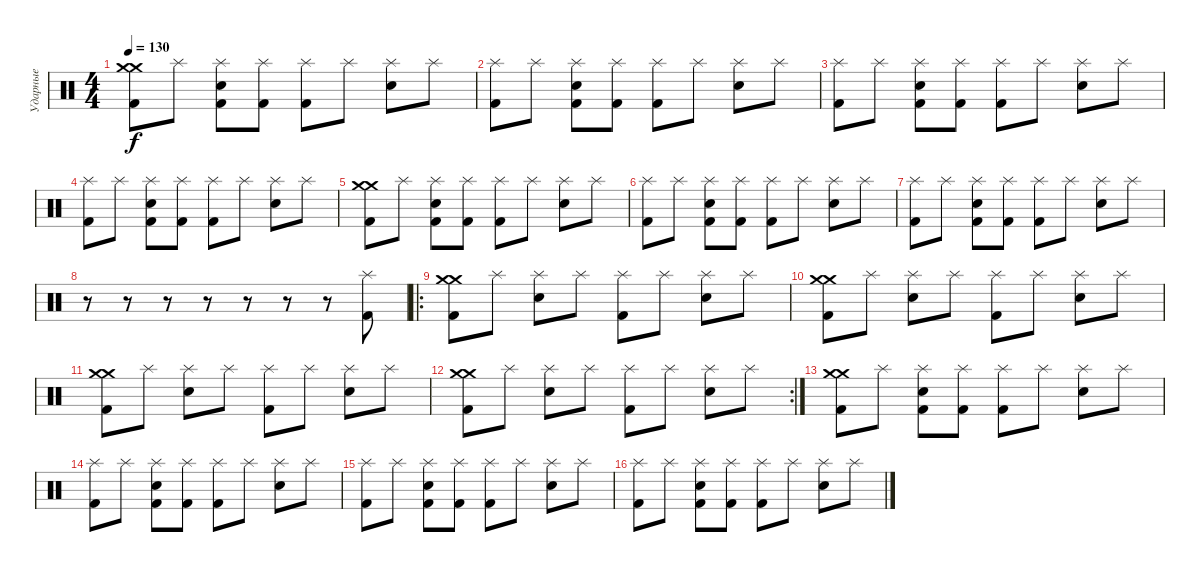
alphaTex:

\track ("Ударные" "Ударные") {instrument percussion}
\staff {score}
\articulation defaults
\ts (4 4)
\tempo 130
\clef neutral
\ks c
("Crash medium (hit)" "Crash medium (hit)" "Kick (hit) 2").8{dy f} "Splash (hit)".8 ("Splash (hit)" "Electric Snare (hit)" "Kick (hit) 2").8 ("Splash (hit)" "Kick (hit) 2").8 ("Splash (hit)" "Kick (hit) 2").8 "Splash (hit)".8 ("Splash (hit)" "Electric Snare (hit)").8 "Splash (hit)".8 |
("Splash (hit)" "Kick (hit) 2").8 "Splash (hit)".8 ("Splash (hit)" "Electric Snare (hit)" "Kick (hit) 2").8 ("Splash (hit)" "Kick (hit) 2").8 ("Splash (hit)" "Kick (hit) 2").8 "Splash (hit)".8 ("Splash (hit)" "Electric Snare (hit)").8 "Splash (hit)".8 |
("Splash (hit)" "Kick (hit) 2").8 "Splash (hit)".8 ("Splash (hit)" "Electric Snare (hit)" "Kick (hit) 2").8 ("Splash (hit)" "Kick (hit) 2").8 ("Splash (hit)" "Kick (hit) 2").8 "Splash (hit)".8 ("Splash (hit)" "Electric Snare (hit)").8 "Splash (hit)".8 |
("Splash (hit)" "Kick (hit) 2").8 "Splash (hit)".8 ("Splash (hit)" "Electric Snare (hit)" "Kick (hit) 2").8 ("Splash (hit)" "Kick (hit) 2").8 ("Splash (hit)" "Kick (hit) 2").8 "Splash (hit)".8 ("Splash (hit)" "Electric Snare (hit)").8 "Splash (hit)".8 |
("Crash medium (hit)" "Crash medium (hit)" "Kick (hit) 2").8 "Splash (hit)".8 ("Splash (hit)" "Electric Snare (hit)" "Kick (hit) 2").8 ("Splash (hit)" "Kick (hit) 2").8 ("Splash (hit)" "Kick (hit) 2").8 "Splash (hit)".8 ("Splash (hit)" "Electric Snare (hit)").8 "Splash (hit)".8 |
("Splash (hit)" "Kick (hit) 2").8 "Splash (hit)".8 ("Splash (hit)" "Electric Snare (hit)" "Kick (hit) 2").8 ("Splash (hit)" "Kick (hit) 2").8 ("Splash (hit)" "Kick (hit) 2").8 "Splash (hit)".8 ("Splash (hit)" "Electric Snare (hit)").8 "Splash (hit)".8 |
("Splash (hit)" "Kick (hit) 2").8 "Splash (hit)".8 ("Splash (hit)" "Electric Snare (hit)" "Kick (hit) 2").8 ("Splash (hit)" "Kick (hit) 2").8 ("Splash (hit)" "Kick (hit) 2").8 "Splash (hit)".8 ("Splash (hit)" "Electric Snare (hit)").8 "Splash (hit)".8 |
r.8 r.8 r.8 r.8 r.8 r.8 r.8 ("Splash (hit)" "Kick (hit) 2").8 |
\ro
("Crash medium (hit)" "Crash medium (hit)" "Kick (hit) 2").8 "Splash (hit)".8 ("Splash (hit)" "Electric Snare (hit)").8 "Splash (hit)".8 ("Splash (hit)" "Kick (hit) 2").8 "Splash (hit)".8 ("Splash (hit)" "Electric Snare (hit)").8 "Splash (hit)".8 |
("Crash medium (hit)" "Crash medium (hit)" "Kick (hit) 2").8 "Splash (hit)".8 ("Splash (hit)" "Electric Snare (hit)").8 "Splash (hit)".8 ("Splash (hit)" "Kick (hit) 2").8 "Splash (hit)".8 ("Splash (hit)" "Electric Snare (hit)").8 "Splash (hit)".8 |
("Crash medium (hit)" "Crash medium (hit)" "Kick (hit) 2").8 "Splash (hit)".8 ("Splash (hit)" "Electric Snare (hit)").8 "Splash (hit)".8 ("Splash (hit)" "Kick (hit) 2").8 "Splash (hit)".8 ("Splash (hit)" "Electric Snare (hit)").8 "Splash (hit)".8 |
\rc 2
("Crash medium (hit)" "Crash medium (hit)" "Kick (hit) 2").8 "Splash (hit)".8 ("Splash (hit)" "Electric Snare (hit)").8 "Splash (hit)".8 ("Splash (hit)" "Kick (hit) 2").8 "Splash (hit)".8 ("Splash (hit)" "Electric Snare (hit)").8 "Splash (hit)".8 |
("Crash medium (hit)" "Crash medium (hit)" "Kick (hit) 2").8 "Splash (hit)".8 ("Splash (hit)" "Electric Snare (hit)" "Kick (hit) 2").8 ("Splash (hit)" "Kick (hit) 2").8 ("Splash (hit)" "Kick (hit) 2").8 "Splash (hit)".8 ("Splash (hit)" "Electric Snare (hit)").8 "Splash (hit)".8 |
("Splash (hit)" "Kick (hit) 2").8 "Splash (hit)".8 ("Splash (hit)" "Electric Snare (hit)" "Kick (hit) 2").8 ("Splash (hit)" "Kick (hit) 2").8 ("Splash (hit)" "Kick (hit) 2").8 "Splash (hit)".8 ("Splash (hit)" "Electric Snare (hit)").8 "Splash (hit)".8 |
("Splash (hit)" "Kick (hit) 2").8 "Splash (hit)".8 ("Splash (hit)" "Electric Snare (hit)" "Kick (hit) 2").8 ("Splash (hit)" "Kick (hit) 2").8 ("Splash (hit)" "Kick (hit) 2").8 "Splash (hit)".8 ("Splash (hit)" "Electric Snare (hit)").8 "Splash (hit)".8 |
("Splash (hit)" "Kick (hit) 2").8 "Splash (hit)".8 ("Splash (hit)" "Electric Snare (hit)" "Kick (hit) 2").8 ("Splash (hit)" "Kick (hit) 2").8 ("Splash (hit)" "Kick (hit) 2").8 "Splash (hit)".8 ("Splash (hit)" "Electric Snare (hit)").8 "Splash (hit)".8
